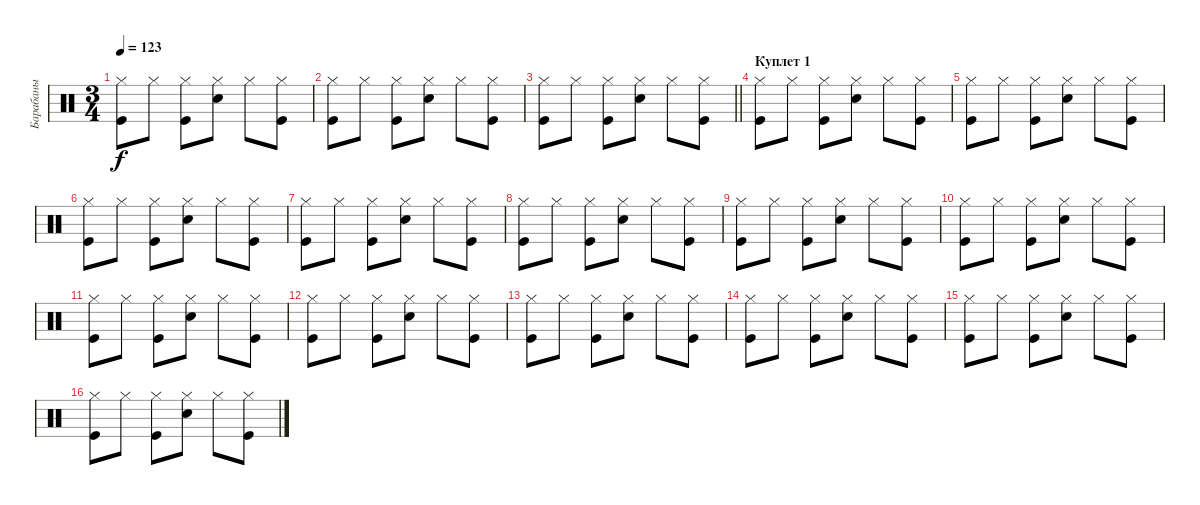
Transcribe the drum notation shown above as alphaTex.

\track ("Барабаны" "Барабаны") {instrument percussion}
\staff {score}
\articulation defaults
\ts (3 4)
\tempo 123
\clef neutral
\ks c
("Kick (hit)" "Hi-Hat (closed)").8{dy f} "Hi-Hat (closed)".8 ("Kick (hit)" "Hi-Hat (closed)").8 ("Snare (hit) 2" "Hi-Hat (closed)").8 "Hi-Hat (closed)".8 ("Kick (hit)" "Hi-Hat (closed)").8 |
("Kick (hit)" "Hi-Hat (closed)").8 "Hi-Hat (closed)".8 ("Kick (hit)" "Hi-Hat (closed)").8 ("Snare (hit) 2" "Hi-Hat (closed)").8 "Hi-Hat (closed)".8 ("Kick (hit)" "Hi-Hat (closed)").8 |
\barLineRight lightlight
("Kick (hit)" "Hi-Hat (closed)").8 "Hi-Hat (closed)".8 ("Kick (hit)" "Hi-Hat (closed)").8 ("Snare (hit) 2" "Hi-Hat (closed)").8 "Hi-Hat (closed)".8 ("Kick (hit)" "Hi-Hat (closed)").8 |
\section ("" "Куплет 1")
("Kick (hit)" "Hi-Hat (closed)").8 "Hi-Hat (closed)".8 ("Kick (hit)" "Hi-Hat (closed)").8 ("Snare (hit) 2" "Hi-Hat (closed)").8 "Hi-Hat (closed)".8 ("Kick (hit)" "Hi-Hat (closed)").8 |
("Kick (hit)" "Hi-Hat (closed)").8 "Hi-Hat (closed)".8 ("Kick (hit)" "Hi-Hat (closed)").8 ("Snare (hit) 2" "Hi-Hat (closed)").8 "Hi-Hat (closed)".8 ("Kick (hit)" "Hi-Hat (closed)").8 |
("Kick (hit)" "Hi-Hat (closed)").8 "Hi-Hat (closed)".8 ("Kick (hit)" "Hi-Hat (closed)").8 ("Snare (hit) 2" "Hi-Hat (closed)").8 "Hi-Hat (closed)".8 ("Kick (hit)" "Hi-Hat (closed)").8 |
("Kick (hit)" "Hi-Hat (closed)").8 "Hi-Hat (closed)".8 ("Kick (hit)" "Hi-Hat (closed)").8 ("Snare (hit) 2" "Hi-Hat (closed)").8 "Hi-Hat (closed)".8 ("Kick (hit)" "Hi-Hat (closed)").8 |
("Kick (hit)" "Hi-Hat (closed)").8 "Hi-Hat (closed)".8 ("Kick (hit)" "Hi-Hat (closed)").8 ("Snare (hit) 2" "Hi-Hat (closed)").8 "Hi-Hat (closed)".8 ("Kick (hit)" "Hi-Hat (closed)").8 |
("Kick (hit)" "Hi-Hat (closed)").8 "Hi-Hat (closed)".8 ("Kick (hit)" "Hi-Hat (closed)").8 ("Snare (hit) 2" "Hi-Hat (closed)").8 "Hi-Hat (closed)".8 ("Kick (hit)" "Hi-Hat (closed)").8 |
("Kick (hit)" "Hi-Hat (closed)").8 "Hi-Hat (closed)".8 ("Kick (hit)" "Hi-Hat (closed)").8 ("Snare (hit) 2" "Hi-Hat (closed)").8 "Hi-Hat (closed)".8 ("Kick (hit)" "Hi-Hat (closed)").8 |
("Kick (hit)" "Hi-Hat (closed)").8 "Hi-Hat (closed)".8 ("Kick (hit)" "Hi-Hat (closed)").8 ("Snare (hit) 2" "Hi-Hat (closed)").8 "Hi-Hat (closed)".8 ("Kick (hit)" "Hi-Hat (closed)").8 |
("Kick (hit)" "Hi-Hat (closed)").8 "Hi-Hat (closed)".8 ("Kick (hit)" "Hi-Hat (closed)").8 ("Snare (hit) 2" "Hi-Hat (closed)").8 "Hi-Hat (closed)".8 ("Kick (hit)" "Hi-Hat (closed)").8 |
("Kick (hit)" "Hi-Hat (closed)").8 "Hi-Hat (closed)".8 ("Kick (hit)" "Hi-Hat (closed)").8 ("Snare (hit) 2" "Hi-Hat (closed)").8 "Hi-Hat (closed)".8 ("Kick (hit)" "Hi-Hat (closed)").8 |
("Kick (hit)" "Hi-Hat (closed)").8 "Hi-Hat (closed)".8 ("Kick (hit)" "Hi-Hat (closed)").8 ("Snare (hit) 2" "Hi-Hat (closed)").8 "Hi-Hat (closed)".8 ("Kick (hit)" "Hi-Hat (closed)").8 |
("Kick (hit)" "Hi-Hat (closed)").8 "Hi-Hat (closed)".8 ("Kick (hit)" "Hi-Hat (closed)").8 ("Snare (hit) 2" "Hi-Hat (closed)").8 "Hi-Hat (closed)".8 ("Kick (hit)" "Hi-Hat (closed)").8 |
("Kick (hit)" "Hi-Hat (closed)").8 "Hi-Hat (closed)".8 ("Kick (hit)" "Hi-Hat (closed)").8 ("Snare (hit) 2" "Hi-Hat (closed)").8 "Hi-Hat (closed)".8 ("Kick (hit)" "Hi-Hat (closed)").8
